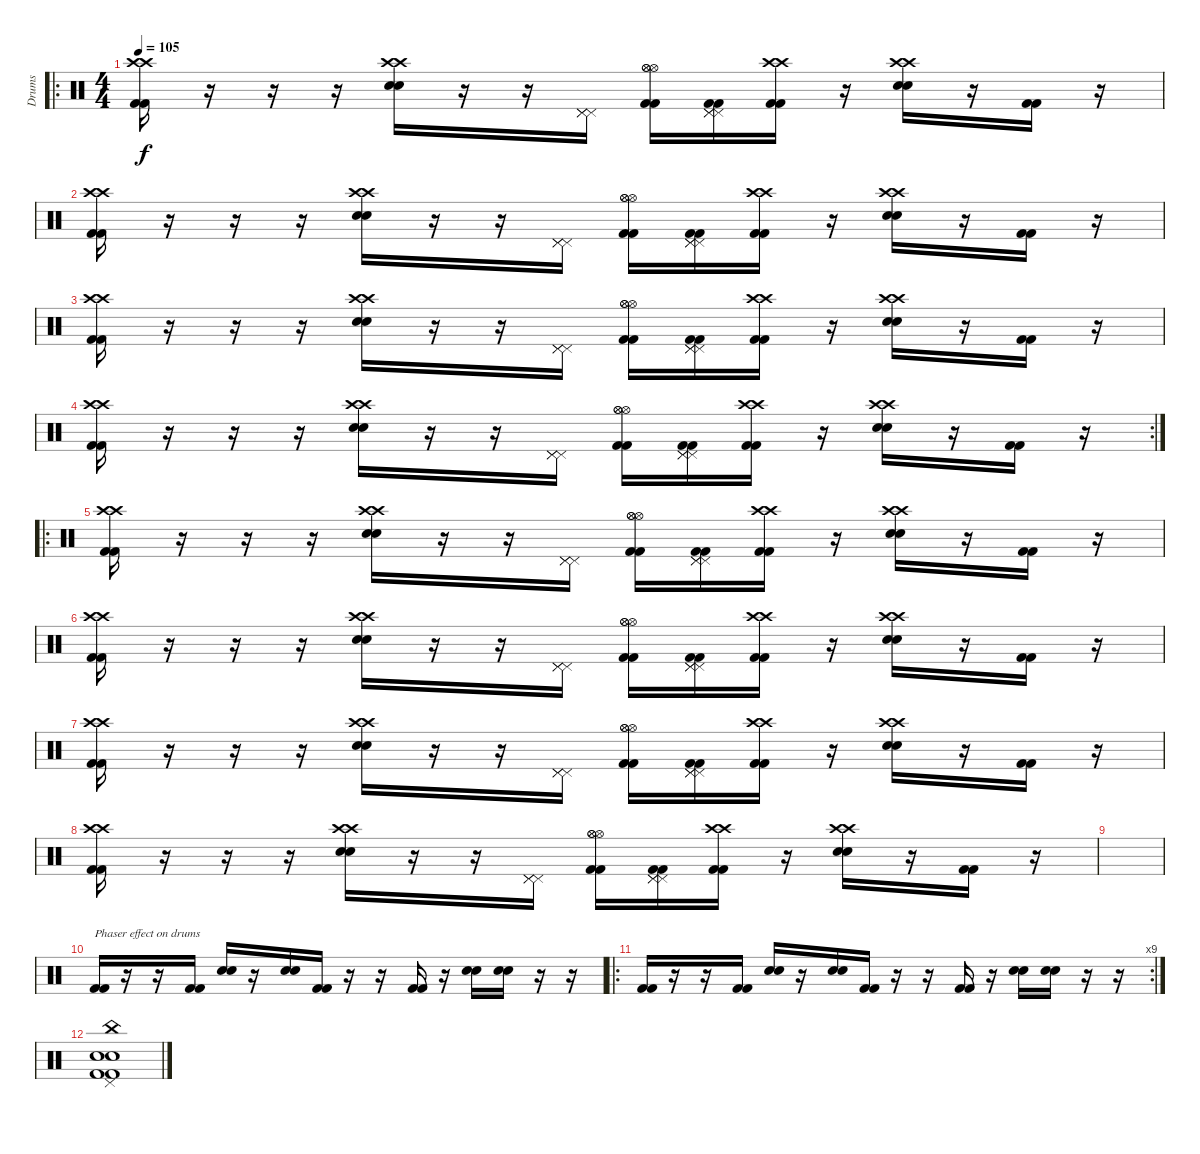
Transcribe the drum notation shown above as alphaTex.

\track ("Drums" "Drums") {instrument percussion}
\staff {score}
\articulation defaults
\ro
\ts (4 4)
\tempo 105
\clef neutral
\ks c
("Crash high (hit)" "Crash high (hit)" "Kick (hit) 2" "Kick (hit) 2").16{dy f} r.16 r.16 r.16 ("Crash high (hit)" "Crash high (hit)" "Electric Snare (hit)" "Electric Snare (hit)").16 r.16 r.16 ("Pedal Hi-Hat (hit)" "Pedal Hi-Hat (hit)" "Pedal Hi-Hat (hit)").16 ("Hi-Hat (open)" "Hi-Hat (open)" "Hi-Hat (open)" "Kick (hit) 2" "Kick (hit) 2").16 ("Pedal Hi-Hat (hit)" "Pedal Hi-Hat (hit)" "Pedal Hi-Hat (hit)" "Kick (hit) 2" "Kick (hit) 2").16 ("Crash high (hit)" "Crash high (hit)" "Kick (hit) 2" "Kick (hit) 2").16 r.16 ("Crash high (hit)" "Crash high (hit)" "Electric Snare (hit)" "Electric Snare (hit)").16 r.16 ("Kick (hit) 2" "Kick (hit) 2").16 r.16 |
("Crash high (hit)" "Crash high (hit)" "Kick (hit) 2" "Kick (hit) 2").16 r.16 r.16 r.16 ("Crash high (hit)" "Crash high (hit)" "Electric Snare (hit)" "Electric Snare (hit)").16 r.16 r.16 ("Pedal Hi-Hat (hit)" "Pedal Hi-Hat (hit)" "Pedal Hi-Hat (hit)").16 ("Hi-Hat (open)" "Hi-Hat (open)" "Hi-Hat (open)" "Kick (hit) 2" "Kick (hit) 2").16 ("Pedal Hi-Hat (hit)" "Pedal Hi-Hat (hit)" "Pedal Hi-Hat (hit)" "Kick (hit) 2" "Kick (hit) 2").16 ("Crash high (hit)" "Crash high (hit)" "Kick (hit) 2" "Kick (hit) 2").16 r.16 ("Crash high (hit)" "Crash high (hit)" "Electric Snare (hit)" "Electric Snare (hit)").16 r.16 ("Kick (hit) 2" "Kick (hit) 2").16 r.16 |
("Crash high (hit)" "Crash high (hit)" "Kick (hit) 2" "Kick (hit) 2").16 r.16 r.16 r.16 ("Crash high (hit)" "Crash high (hit)" "Electric Snare (hit)" "Electric Snare (hit)").16 r.16 r.16 ("Pedal Hi-Hat (hit)" "Pedal Hi-Hat (hit)" "Pedal Hi-Hat (hit)").16 ("Hi-Hat (open)" "Hi-Hat (open)" "Hi-Hat (open)" "Kick (hit) 2" "Kick (hit) 2").16 ("Pedal Hi-Hat (hit)" "Pedal Hi-Hat (hit)" "Pedal Hi-Hat (hit)" "Kick (hit) 2" "Kick (hit) 2").16 ("Crash high (hit)" "Crash high (hit)" "Kick (hit) 2" "Kick (hit) 2").16 r.16 ("Crash high (hit)" "Crash high (hit)" "Electric Snare (hit)" "Electric Snare (hit)").16 r.16 ("Kick (hit) 2" "Kick (hit) 2").16 r.16 |
\rc 2
("Crash high (hit)" "Crash high (hit)" "Kick (hit) 2" "Kick (hit) 2").16 r.16 r.16 r.16 ("Crash high (hit)" "Crash high (hit)" "Electric Snare (hit)" "Electric Snare (hit)").16 r.16 r.16 ("Pedal Hi-Hat (hit)" "Pedal Hi-Hat (hit)" "Pedal Hi-Hat (hit)").16 ("Hi-Hat (open)" "Hi-Hat (open)" "Hi-Hat (open)" "Kick (hit) 2" "Kick (hit) 2").16 ("Pedal Hi-Hat (hit)" "Pedal Hi-Hat (hit)" "Pedal Hi-Hat (hit)" "Kick (hit) 2" "Kick (hit) 2").16 ("Crash high (hit)" "Crash high (hit)" "Kick (hit) 2" "Kick (hit) 2").16 r.16 ("Crash high (hit)" "Crash high (hit)" "Electric Snare (hit)" "Electric Snare (hit)").16 r.16 ("Kick (hit) 2" "Kick (hit) 2").16 r.16 |
\ro
("Crash high (hit)" "Crash high (hit)" "Kick (hit) 2" "Kick (hit) 2").16 r.16 r.16 r.16 ("Crash high (hit)" "Crash high (hit)" "Electric Snare (hit)" "Electric Snare (hit)").16 r.16 r.16 ("Pedal Hi-Hat (hit)" "Pedal Hi-Hat (hit)" "Pedal Hi-Hat (hit)").16 ("Hi-Hat (open)" "Hi-Hat (open)" "Hi-Hat (open)" "Kick (hit) 2" "Kick (hit) 2").16 ("Pedal Hi-Hat (hit)" "Pedal Hi-Hat (hit)" "Pedal Hi-Hat (hit)" "Kick (hit) 2" "Kick (hit) 2").16 ("Crash high (hit)" "Crash high (hit)" "Kick (hit) 2" "Kick (hit) 2").16 r.16 ("Crash high (hit)" "Crash high (hit)" "Electric Snare (hit)" "Electric Snare (hit)").16 r.16 ("Kick (hit) 2" "Kick (hit) 2").16 r.16 |
("Crash high (hit)" "Crash high (hit)" "Kick (hit) 2" "Kick (hit) 2").16 r.16 r.16 r.16 ("Crash high (hit)" "Crash high (hit)" "Electric Snare (hit)" "Electric Snare (hit)").16 r.16 r.16 ("Pedal Hi-Hat (hit)" "Pedal Hi-Hat (hit)" "Pedal Hi-Hat (hit)").16 ("Hi-Hat (open)" "Hi-Hat (open)" "Hi-Hat (open)" "Kick (hit) 2" "Kick (hit) 2").16 ("Pedal Hi-Hat (hit)" "Pedal Hi-Hat (hit)" "Pedal Hi-Hat (hit)" "Kick (hit) 2" "Kick (hit) 2").16 ("Crash high (hit)" "Crash high (hit)" "Kick (hit) 2" "Kick (hit) 2").16 r.16 ("Crash high (hit)" "Crash high (hit)" "Electric Snare (hit)" "Electric Snare (hit)").16 r.16 ("Kick (hit) 2" "Kick (hit) 2").16 r.16 |
("Crash high (hit)" "Crash high (hit)" "Kick (hit) 2" "Kick (hit) 2").16 r.16 r.16 r.16 ("Crash high (hit)" "Crash high (hit)" "Electric Snare (hit)" "Electric Snare (hit)").16 r.16 r.16 ("Pedal Hi-Hat (hit)" "Pedal Hi-Hat (hit)" "Pedal Hi-Hat (hit)").16 ("Hi-Hat (open)" "Hi-Hat (open)" "Hi-Hat (open)" "Kick (hit) 2" "Kick (hit) 2").16 ("Pedal Hi-Hat (hit)" "Pedal Hi-Hat (hit)" "Pedal Hi-Hat (hit)" "Kick (hit) 2" "Kick (hit) 2").16 ("Crash high (hit)" "Crash high (hit)" "Kick (hit) 2" "Kick (hit) 2").16 r.16 ("Crash high (hit)" "Crash high (hit)" "Electric Snare (hit)" "Electric Snare (hit)").16 r.16 ("Kick (hit) 2" "Kick (hit) 2").16 r.16 |
("Crash high (hit)" "Crash high (hit)" "Kick (hit) 2" "Kick (hit) 2").16 r.16 r.16 r.16 ("Crash high (hit)" "Crash high (hit)" "Electric Snare (hit)" "Electric Snare (hit)").16 r.16 r.16 ("Pedal Hi-Hat (hit)" "Pedal Hi-Hat (hit)" "Pedal Hi-Hat (hit)").16 ("Hi-Hat (open)" "Hi-Hat (open)" "Hi-Hat (open)" "Kick (hit) 2" "Kick (hit) 2").16 ("Pedal Hi-Hat (hit)" "Pedal Hi-Hat (hit)" "Pedal Hi-Hat (hit)" "Kick (hit) 2" "Kick (hit) 2").16 ("Crash high (hit)" "Crash high (hit)" "Kick (hit) 2" "Kick (hit) 2").16 r.16 ("Crash high (hit)" "Crash high (hit)" "Electric Snare (hit)" "Electric Snare (hit)").16 r.16 ("Kick (hit) 2" "Kick (hit) 2").16 r.16 |
|
("Kick (hit) 2" "Kick (hit) 2").16{txt "Phaser effect on drums" volume 13} r.16 r.16 ("Kick (hit) 2" "Kick (hit) 2").16 ("Electric Snare (hit)" "Electric Snare (hit)").16 r.16 ("Electric Snare (hit)" "Electric Snare (hit)").16 ("Kick (hit) 2" "Kick (hit) 2").16 r.16 r.16 ("Kick (hit) 2" "Kick (hit) 2").16 r.16 ("Electric Snare (hit)" "Electric Snare (hit)").16 ("Electric Snare (hit)" "Electric Snare (hit)").16 r.16 r.16 |
\ro
\rc 9
("Kick (hit) 2" "Kick (hit) 2").16 r.16 r.16 ("Kick (hit) 2" "Kick (hit) 2").16 ("Electric Snare (hit)" "Electric Snare (hit)").16 r.16 ("Electric Snare (hit)" "Electric Snare (hit)").16 ("Kick (hit) 2" "Kick (hit) 2").16 r.16 r.16 ("Kick (hit) 2" "Kick (hit) 2").16 r.16 ("Electric Snare (hit)" "Electric Snare (hit)").16 ("Electric Snare (hit)" "Electric Snare (hit)").16 r.16 r.16 |
("Pedal Hi-Hat (hit)" "China (hit)" "Electric Snare (hit)" "Electric Snare (hit)" "Kick (hit) 2" "Kick (hit) 2").1
